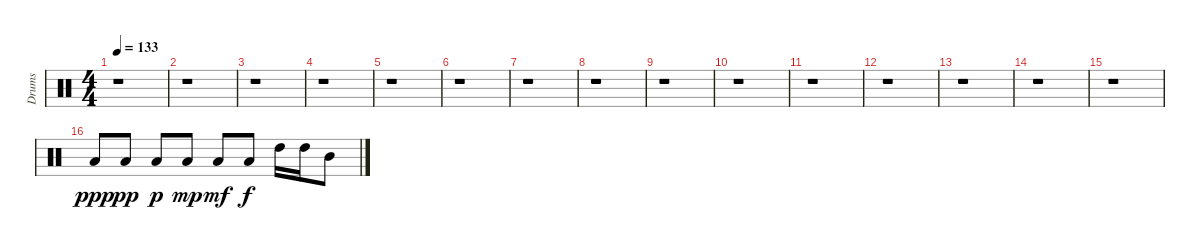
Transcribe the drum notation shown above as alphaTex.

\track ("Drums" "Drums") {instrument percussion}
\staff {score}
\articulation defaults
\ts (4 4)
\tempo 133
\clef neutral
\ks c
r.1{dy ppp} |
r.1 |
r.1 |
r.1 |
r.1 |
r.1 |
r.1 |
r.1 |
r.1 |
r.1 |
r.1 |
r.1 |
r.1 |
r.1 |
r.1 |
"Low Tom (hit)".8 "Low Tom (hit)".8{dy pp} "Low Tom (hit)".8{dy p} "Low Tom (hit)".8{dy mp} "Low Tom (hit)".8{dy mf} "Low Tom (hit)".8{dy f} "High Tom (hit)".16 "High Tom (hit)".16 "Mid Tom (hit)".8
